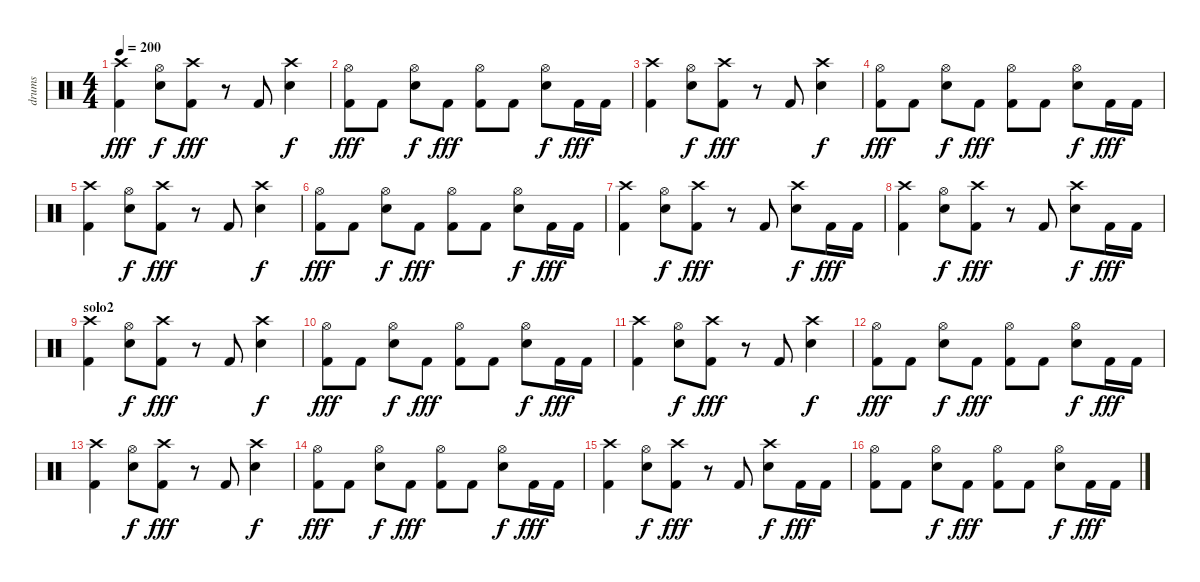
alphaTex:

\track ("drums" "drums") {instrument percussion}
\staff {score}
\articulation defaults
\ts (4 4)
\tempo 200
\clef neutral
\ks c
("Crash high (hit)" "Kick (hit) 2").4{dy fff} ("Hi-Hat (open)" "Snare (hit) 2").8{dy f} ("Crash high (hit)" "Kick (hit) 2").8{dy fff} r.8 "Kick (hit) 2".8 ("Crash high (hit)" "Snare (hit) 2").4{dy f} |
("Hi-Hat (open)" "Kick (hit) 2").8{dy fff} "Kick (hit) 2".8 ("Hi-Hat (open)" "Snare (hit) 2").8{dy f} "Kick (hit) 2".8{dy fff} ("Hi-Hat (open)" "Kick (hit) 2").8 "Kick (hit) 2".8 ("Hi-Hat (open)" "Snare (hit) 2").8{dy f} "Kick (hit) 2".16{dy fff} "Kick (hit) 2".16 |
("Crash high (hit)" "Kick (hit) 2").4 ("Hi-Hat (open)" "Snare (hit) 2").8{dy f} ("Crash high (hit)" "Kick (hit) 2").8{dy fff} r.8 "Kick (hit) 2".8 ("Crash high (hit)" "Snare (hit) 2").4{dy f} |
("Hi-Hat (open)" "Kick (hit) 2").8{dy fff} "Kick (hit) 2".8 ("Hi-Hat (open)" "Snare (hit) 2").8{dy f} "Kick (hit) 2".8{dy fff} ("Hi-Hat (open)" "Kick (hit) 2").8 "Kick (hit) 2".8 ("Hi-Hat (open)" "Snare (hit) 2").8{dy f} "Kick (hit) 2".16{dy fff} "Kick (hit) 2".16 |
("Crash high (hit)" "Kick (hit) 2").4 ("Hi-Hat (open)" "Snare (hit) 2").8{dy f} ("Crash high (hit)" "Kick (hit) 2").8{dy fff} r.8 "Kick (hit) 2".8 ("Crash high (hit)" "Snare (hit) 2").4{dy f} |
("Hi-Hat (open)" "Kick (hit) 2").8{dy fff} "Kick (hit) 2".8 ("Hi-Hat (open)" "Snare (hit) 2").8{dy f} "Kick (hit) 2".8{dy fff} ("Hi-Hat (open)" "Kick (hit) 2").8 "Kick (hit) 2".8 ("Hi-Hat (open)" "Snare (hit) 2").8{dy f} "Kick (hit) 2".16{dy fff} "Kick (hit) 2".16 |
("Crash high (hit)" "Kick (hit) 2").4 ("Hi-Hat (open)" "Snare (hit) 2").8{dy f} ("Crash high (hit)" "Kick (hit) 2").8{dy fff} r.8 "Kick (hit) 2".8 ("Crash high (hit)" "Snare (hit) 2").8{dy f} "Kick (hit) 2".16{dy fff} "Kick (hit) 2".16 |
("Crash high (hit)" "Kick (hit) 2").4 ("Hi-Hat (open)" "Snare (hit) 2").8{dy f} ("Crash high (hit)" "Kick (hit) 2").8{dy fff} r.8 "Kick (hit) 2".8 ("Crash high (hit)" "Snare (hit) 2").8{dy f} "Kick (hit) 2".16{dy fff} "Kick (hit) 2".16 |
\section ("" "solo2")
("Crash high (hit)" "Kick (hit) 2").4 ("Hi-Hat (open)" "Snare (hit) 2").8{dy f} ("Crash high (hit)" "Kick (hit) 2").8{dy fff} r.8 "Kick (hit) 2".8 ("Crash high (hit)" "Snare (hit) 2").4{dy f} |
("Hi-Hat (open)" "Kick (hit) 2").8{dy fff} "Kick (hit) 2".8 ("Hi-Hat (open)" "Snare (hit) 2").8{dy f} "Kick (hit) 2".8{dy fff} ("Hi-Hat (open)" "Kick (hit) 2").8 "Kick (hit) 2".8 ("Hi-Hat (open)" "Snare (hit) 2").8{dy f} "Kick (hit) 2".16{dy fff} "Kick (hit) 2".16 |
("Crash high (hit)" "Kick (hit) 2").4 ("Hi-Hat (open)" "Snare (hit) 2").8{dy f} ("Crash high (hit)" "Kick (hit) 2").8{dy fff} r.8 "Kick (hit) 2".8 ("Crash high (hit)" "Snare (hit) 2").4{dy f} |
("Hi-Hat (open)" "Kick (hit) 2").8{dy fff} "Kick (hit) 2".8 ("Hi-Hat (open)" "Snare (hit) 2").8{dy f} "Kick (hit) 2".8{dy fff} ("Hi-Hat (open)" "Kick (hit) 2").8 "Kick (hit) 2".8 ("Hi-Hat (open)" "Snare (hit) 2").8{dy f} "Kick (hit) 2".16{dy fff} "Kick (hit) 2".16 |
("Crash high (hit)" "Kick (hit) 2").4 ("Hi-Hat (open)" "Snare (hit) 2").8{dy f} ("Crash high (hit)" "Kick (hit) 2").8{dy fff} r.8 "Kick (hit) 2".8 ("Crash high (hit)" "Snare (hit) 2").4{dy f} |
("Hi-Hat (open)" "Kick (hit) 2").8{dy fff} "Kick (hit) 2".8 ("Hi-Hat (open)" "Snare (hit) 2").8{dy f} "Kick (hit) 2".8{dy fff} ("Hi-Hat (open)" "Kick (hit) 2").8 "Kick (hit) 2".8 ("Hi-Hat (open)" "Snare (hit) 2").8{dy f} "Kick (hit) 2".16{dy fff} "Kick (hit) 2".16 |
("Crash high (hit)" "Kick (hit) 2").4 ("Hi-Hat (open)" "Snare (hit) 2").8{dy f} ("Crash high (hit)" "Kick (hit) 2").8{dy fff} r.8 "Kick (hit) 2".8 ("Crash high (hit)" "Snare (hit) 2").8{dy f} "Kick (hit) 2".16{dy fff} "Kick (hit) 2".16 |
("Hi-Hat (open)" "Kick (hit) 2").8 "Kick (hit) 2".8 ("Hi-Hat (open)" "Snare (hit) 2").8{dy f} "Kick (hit) 2".8{dy fff} ("Hi-Hat (open)" "Kick (hit) 2").8 "Kick (hit) 2".8 ("Hi-Hat (open)" "Snare (hit) 2").8{dy f} "Kick (hit) 2".16{dy fff} "Kick (hit) 2".16
